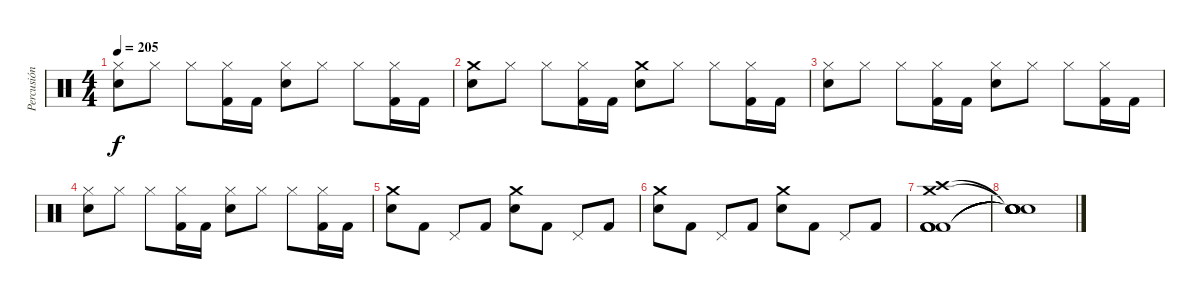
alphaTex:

\track ("Percusión" "Percusión") {instrument percussion}
\staff {score}
\articulation defaults
\ts (4 4)
\tempo 205
\clef neutral
\ks c
("Snare (hit) 2" "Hi-Hat (closed)").8{dy f} "Hi-Hat (closed)".8 "Hi-Hat (closed)".8 ("Hi-Hat (closed)" "Kick (hit) 2").16 "Kick (hit) 2".16 ("Hi-Hat (closed)" "Snare (hit) 2").8 "Hi-Hat (closed)".8 "Hi-Hat (closed)".8 ("Hi-Hat (closed)" "Kick (hit) 2").16 "Kick (hit) 2".16 |
("Snare (hit) 2" "Crash medium (hit)").8 "Hi-Hat (closed)".8 "Hi-Hat (closed)".8 ("Hi-Hat (closed)" "Kick (hit) 2").16 "Kick (hit) 2".16 ("Snare (hit) 2" "Crash medium (hit)").8 "Hi-Hat (closed)".8 "Hi-Hat (closed)".8 ("Hi-Hat (closed)" "Kick (hit) 2").16 "Kick (hit) 2".16 |
("Snare (hit) 2" "Hi-Hat (closed)").8 "Hi-Hat (closed)".8 "Hi-Hat (closed)".8 ("Hi-Hat (closed)" "Kick (hit) 2").16 "Kick (hit) 2".16 ("Hi-Hat (closed)" "Snare (hit) 2").8 "Hi-Hat (closed)".8 "Hi-Hat (closed)".8 ("Hi-Hat (closed)" "Kick (hit) 2").16 "Kick (hit) 2".16 |
("Snare (hit) 2" "Hi-Hat (closed)").8 "Hi-Hat (closed)".8 "Hi-Hat (closed)".8 ("Hi-Hat (closed)" "Kick (hit) 2").16 "Kick (hit) 2".16 ("Hi-Hat (closed)" "Snare (hit) 2").8 "Hi-Hat (closed)".8 "Hi-Hat (closed)".8 ("Hi-Hat (closed)" "Kick (hit) 2").16 "Kick (hit) 2".16 |
("Crash medium (hit)" "Snare (hit) 2").8 "Kick (hit) 2".8 "Pedal Hi-Hat (hit)".8 "Kick (hit) 2".8 ("Crash medium (hit)" "Snare (hit) 2").8 "Kick (hit) 2".8 "Pedal Hi-Hat (hit)".8 "Kick (hit) 2".8 |
("Crash medium (hit)" "Snare (hit) 2").8 "Kick (hit) 2".8 "Pedal Hi-Hat (hit)".8 "Kick (hit) 2".8 ("Crash medium (hit)" "Snare (hit) 2").8 "Kick (hit) 2".8 "Pedal Hi-Hat (hit)".8 "Kick (hit) 2".8 |
("Kick (hit) 2" "Kick (hit) 2" "Crash high (hit)" "Crash medium (hit)" "Kick (hit) 2" "Kick (hit) 2").1 |
("Snare (hit)"{t} "Snare (hit)"{t} "Snare (hit)"{t} "Snare (hit)"{t} "Snare (hit)"{t} "Snare (hit)"{t}).1
